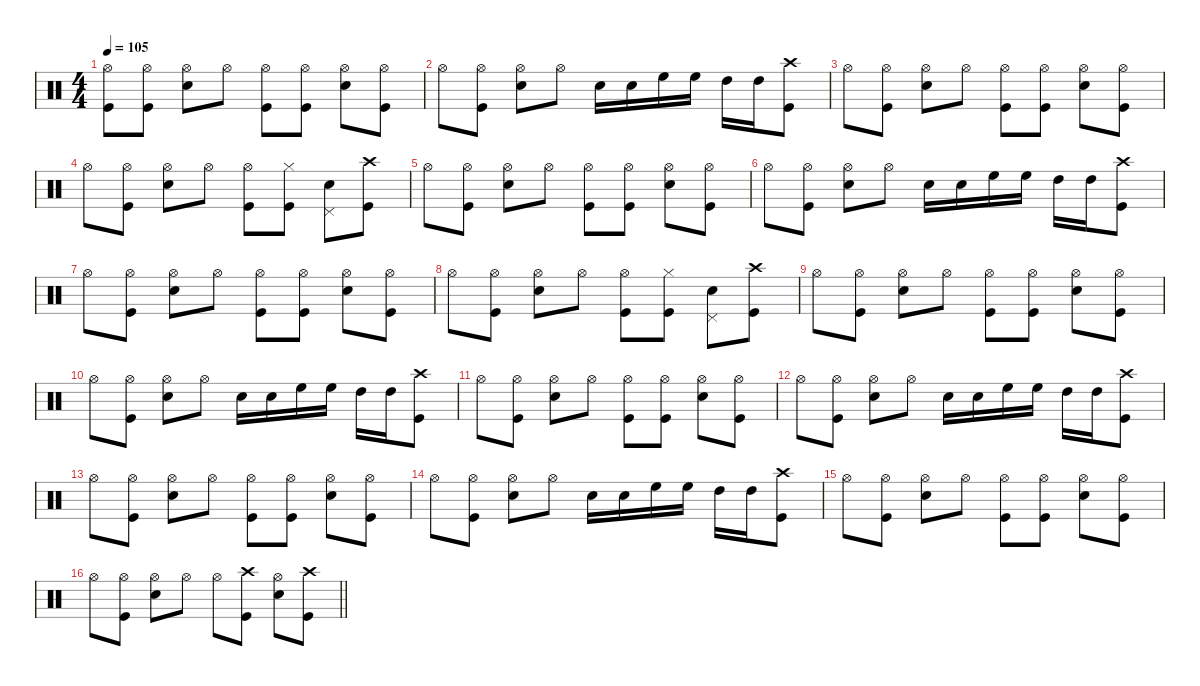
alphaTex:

\defaultSystemsLayout 4
\hideDynamics
\bracketExtendMode nobrackets
\singleTrackTrackNamePolicy hidden
\multiTrackTrackNamePolicy hidden
\otherSystemsTrackNameOrientation horizontal
\track ("Bonham" "drm.") {defaultSystemsLayout 4 instrument percussion}
\staff {score}
\articulation defaults
\ts (4 4)
\tempo 105
\clef neutral
\ks c
("Kick (hit)" "Hi-Hat (open)").8{dy fff beam Down} ("Kick (hit)" "Hi-Hat (open)").8{dy ff beam Down} ("Snare (hit) 2" "Hi-Hat (open)").8{beam Down} "Hi-Hat (open)".8{beam Down} ("Kick (hit)" "Hi-Hat (open)").8{beam Down} ("Kick (hit)" "Hi-Hat (open)").8{beam Down} ("Snare (hit) 2" "Hi-Hat (open)").8{beam Down} ("Kick (hit)" "Hi-Hat (open)").8{beam Down} |
"Hi-Hat (open)".8{beam Down} ("Kick (hit)" "Hi-Hat (open)").8{beam Down} ("Snare (hit) 2" "Hi-Hat (open)").8{beam Down} "Hi-Hat (open)".8{beam Down} "Snare (hit) 2".16{beam Down} "Snare (hit) 2".16{beam Down} "High Floor Tom (hit)".16{beam Down} "High Floor Tom (hit)".16{beam Down} "High Tom (hit)".16{beam Down} "High Tom (hit)".16{beam Down} ("Kick (hit)" "Crash high (hit)").8{beam Down} |
"Hi-Hat (open)".8{beam Down} ("Kick (hit)" "Hi-Hat (open)").8{beam Down} ("Snare (hit) 2" "Hi-Hat (open)").8{beam Down} "Hi-Hat (open)".8{beam Down} ("Kick (hit)" "Hi-Hat (open)").8{beam Down} ("Kick (hit)" "Hi-Hat (open)").8{beam Down} ("Snare (hit) 2" "Hi-Hat (open)").8{beam Down} ("Kick (hit)" "Hi-Hat (open)").8{beam Down} |
"Hi-Hat (open)".8{beam Down} ("Kick (hit)" "Hi-Hat (open)").8{beam Down} ("Snare (hit) 2" "Hi-Hat (open)").8{beam Down} "Hi-Hat (open)".8{beam Down} ("Kick (hit)" "Hi-Hat (open)").8{beam Down} ("Kick (hit)" "Hi-Hat (closed)").8{beam Down} ("Snare (hit) 2" "Pedal Hi-Hat (hit)").8{beam Down} ("Kick (hit)" "Crash high (hit)").8{beam Down} |
"Hi-Hat (open)".8{beam Down} ("Kick (hit)" "Hi-Hat (open)").8{beam Down} ("Snare (hit) 2" "Hi-Hat (open)").8{beam Down} "Hi-Hat (open)".8{beam Down} ("Kick (hit)" "Hi-Hat (open)").8{beam Down} ("Kick (hit)" "Hi-Hat (open)").8{beam Down} ("Snare (hit) 2" "Hi-Hat (open)").8{beam Down} ("Kick (hit)" "Hi-Hat (open)").8{beam Down} |
"Hi-Hat (open)".8{beam Down} ("Kick (hit)" "Hi-Hat (open)").8{beam Down} ("Snare (hit) 2" "Hi-Hat (open)").8{beam Down} "Hi-Hat (open)".8{beam Down} "Snare (hit) 2".16{beam Down} "Snare (hit) 2".16{beam Down} "High Floor Tom (hit)".16{beam Down} "High Floor Tom (hit)".16{beam Down} "High Tom (hit)".16{beam Down} "High Tom (hit)".16{beam Down} ("Kick (hit)" "Crash high (hit)").8{beam Down} |
"Hi-Hat (open)".8{beam Down} ("Kick (hit)" "Hi-Hat (open)").8{beam Down} ("Snare (hit) 2" "Hi-Hat (open)").8{beam Down} "Hi-Hat (open)".8{beam Down} ("Kick (hit)" "Hi-Hat (open)").8{beam Down} ("Kick (hit)" "Hi-Hat (open)").8{beam Down} ("Snare (hit) 2" "Hi-Hat (open)").8{beam Down} ("Kick (hit)" "Hi-Hat (open)").8{beam Down} |
"Hi-Hat (open)".8{beam Down} ("Kick (hit)" "Hi-Hat (open)").8{beam Down} ("Snare (hit) 2" "Hi-Hat (open)").8{beam Down} "Hi-Hat (open)".8{beam Down} ("Kick (hit)" "Hi-Hat (open)").8{beam Down} ("Kick (hit)" "Hi-Hat (closed)").8{beam Down} ("Snare (hit) 2" "Pedal Hi-Hat (hit)").8{beam Down} ("Kick (hit)" "Crash high (hit)").8{beam Down} |
"Hi-Hat (open)".8{beam Down} ("Kick (hit)" "Hi-Hat (open)").8{beam Down} ("Snare (hit) 2" "Hi-Hat (open)").8{beam Down} "Hi-Hat (open)".8{beam Down} ("Kick (hit)" "Hi-Hat (open)").8{beam Down} ("Kick (hit)" "Hi-Hat (open)").8{beam Down} ("Snare (hit) 2" "Hi-Hat (open)").8{beam Down} ("Kick (hit)" "Hi-Hat (open)").8{beam Down} |
"Hi-Hat (open)".8{beam Down} ("Kick (hit)" "Hi-Hat (open)").8{beam Down} ("Snare (hit) 2" "Hi-Hat (open)").8{beam Down} "Hi-Hat (open)".8{beam Down} "Snare (hit) 2".16{beam Down} "Snare (hit) 2".16{beam Down} "High Floor Tom (hit)".16{beam Down} "High Floor Tom (hit)".16{beam Down} "High Tom (hit)".16{beam Down} "High Tom (hit)".16{beam Down} ("Kick (hit)" "Crash high (hit)").8{beam Down} |
"Hi-Hat (open)".8{beam Down} ("Kick (hit)" "Hi-Hat (open)").8{beam Down} ("Snare (hit) 2" "Hi-Hat (open)").8{beam Down} "Hi-Hat (open)".8{beam Down} ("Kick (hit)" "Hi-Hat (open)").8{beam Down} ("Kick (hit)" "Hi-Hat (open)").8{beam Down} ("Snare (hit) 2" "Hi-Hat (open)").8{beam Down} ("Kick (hit)" "Hi-Hat (open)").8{beam Down} |
"Hi-Hat (open)".8{beam Down} ("Kick (hit)" "Hi-Hat (open)").8{beam Down} ("Snare (hit) 2" "Hi-Hat (open)").8{beam Down} "Hi-Hat (open)".8{beam Down} "Snare (hit) 2".16{beam Down} "Snare (hit) 2".16{beam Down} "High Floor Tom (hit)".16{beam Down} "High Floor Tom (hit)".16{beam Down} "High Tom (hit)".16{beam Down} "High Tom (hit)".16{beam Down} ("Kick (hit)" "Crash high (hit)").8{beam Down} |
"Hi-Hat (open)".8{beam Down} ("Kick (hit)" "Hi-Hat (open)").8{beam Down} ("Snare (hit) 2" "Hi-Hat (open)").8{beam Down} "Hi-Hat (open)".8{beam Down} ("Kick (hit)" "Hi-Hat (open)").8{beam Down} ("Kick (hit)" "Hi-Hat (open)").8{beam Down} ("Snare (hit) 2" "Hi-Hat (open)").8{beam Down} ("Kick (hit)" "Hi-Hat (open)").8{beam Down} |
"Hi-Hat (open)".8{beam Down} ("Kick (hit)" "Hi-Hat (open)").8{beam Down} ("Snare (hit) 2" "Hi-Hat (open)").8{beam Down} "Hi-Hat (open)".8{beam Down} "Snare (hit) 2".16{beam Down} "Snare (hit) 2".16{beam Down} "High Floor Tom (hit)".16{beam Down} "High Floor Tom (hit)".16{beam Down} "High Tom (hit)".16{beam Down} "High Tom (hit)".16{beam Down} ("Kick (hit)" "Crash high (hit)").8{beam Down} |
"Hi-Hat (open)".8{beam Down} ("Kick (hit)" "Hi-Hat (open)").8{beam Down} ("Snare (hit) 2" "Hi-Hat (open)").8{beam Down} "Hi-Hat (open)".8{beam Down} ("Kick (hit)" "Hi-Hat (open)").8{beam Down} ("Kick (hit)" "Hi-Hat (open)").8{beam Down} ("Snare (hit) 2" "Hi-Hat (open)").8{beam Down} ("Kick (hit)" "Hi-Hat (open)").8{beam Down} |
\barLineRight lightlight "Hi-Hat (open)".8{beam Down}
("Kick (hit)" "Hi-Hat (open)").8{beam Down} ("Snare (hit) 2" "Hi-Hat (open)").8{beam Down} "Hi-Hat (open)".8{beam Down} "Hi-Hat (open)".8{beam Down} ("Kick (hit)" "Crash high (hit)").8{beam Down} ("Snare (hit) 2" "Hi-Hat (open)").8{beam Down} ("Kick (hit)" "Crash high (hit)").8{beam Down}
